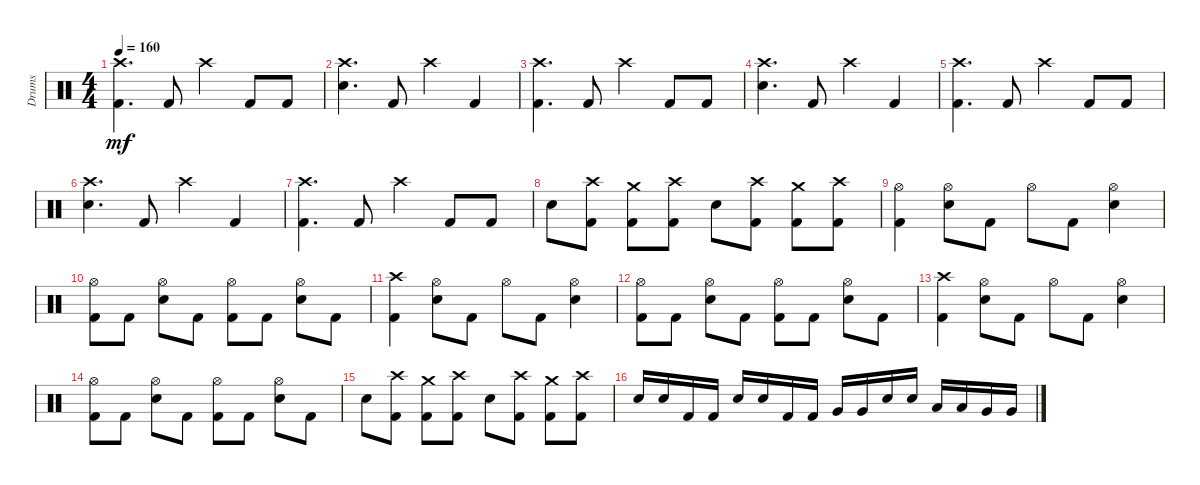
\track ("Drums" "Drums") {instrument percussion}
\staff {score}
\articulation defaults
\ts (4 4)
\tempo 160
\clef neutral
\ks c
("Crash high (hit)" "Kick (hit) 2").4{d dy mf} "Kick (hit) 2".8 "Crash high (hit)".4 "Kick (hit) 2".8 "Kick (hit) 2".8 |
("Crash high (hit)" "Electric Snare (hit)").4{d} "Kick (hit) 2".8 "Crash high (hit)".4 "Kick (hit) 2".4 |
("Crash high (hit)" "Kick (hit) 2").4{d} "Kick (hit) 2".8 "Crash high (hit)".4 "Kick (hit) 2".8 "Kick (hit) 2".8 |
("Crash high (hit)" "Electric Snare (hit)").4{d} "Kick (hit) 2".8 "Crash high (hit)".4 "Kick (hit) 2".4 |
("Crash high (hit)" "Kick (hit) 2").4{d} "Kick (hit) 2".8 "Crash high (hit)".4 "Kick (hit) 2".8 "Kick (hit) 2".8 |
("Crash high (hit)" "Electric Snare (hit)").4{d} "Kick (hit) 2".8 "Crash high (hit)".4 "Kick (hit) 2".4 |
("Crash high (hit)" "Kick (hit) 2").4{d} "Kick (hit) 2".8 "Crash high (hit)".4 "Kick (hit) 2".8 "Kick (hit) 2".8 |
"Electric Snare (hit)".8 ("Crash high (hit)" "Kick (hit) 2").8 ("Crash medium (hit)" "Kick (hit) 2").8 ("Crash high (hit)" "Kick (hit) 2").8 "Electric Snare (hit)".8 ("Crash high (hit)" "Kick (hit) 2").8 ("Crash medium (hit)" "Kick (hit) 2").8 ("Crash high (hit)" "Kick (hit) 2").8 |
("Hi-Hat (open)" "Kick (hit) 2").4 ("Hi-Hat (open)" "Electric Snare (hit)").8 "Kick (hit) 2".8 "Hi-Hat (open)".8 "Kick (hit) 2".8 ("Hi-Hat (open)" "Electric Snare (hit)").4 |
("Hi-Hat (open)" "Kick (hit) 2").8 "Kick (hit) 2".8 ("Hi-Hat (open)" "Electric Snare (hit)").8 "Kick (hit) 2".8 ("Hi-Hat (open)" "Kick (hit) 2").8 "Kick (hit) 2".8 ("Hi-Hat (open)" "Electric Snare (hit)").8 "Kick (hit) 2".8 |
("Crash high (hit)" "Kick (hit) 2").4 ("Hi-Hat (open)" "Electric Snare (hit)").8 "Kick (hit) 2".8 "Hi-Hat (open)".8 "Kick (hit) 2".8 ("Hi-Hat (open)" "Electric Snare (hit)").4 |
("Hi-Hat (open)" "Kick (hit) 2").8 "Kick (hit) 2".8 ("Hi-Hat (open)" "Electric Snare (hit)").8 "Kick (hit) 2".8 ("Hi-Hat (open)" "Kick (hit) 2").8 "Kick (hit) 2".8 ("Hi-Hat (open)" "Electric Snare (hit)").8 "Kick (hit) 2".8 |
("Crash high (hit)" "Kick (hit) 2").4 ("Hi-Hat (open)" "Electric Snare (hit)").8 "Kick (hit) 2".8 "Hi-Hat (open)".8 "Kick (hit) 2".8 ("Hi-Hat (open)" "Electric Snare (hit)").4 |
("Hi-Hat (open)" "Kick (hit) 2").8 "Kick (hit) 2".8 ("Hi-Hat (open)" "Electric Snare (hit)").8 "Kick (hit) 2".8 ("Hi-Hat (open)" "Kick (hit) 2").8 "Kick (hit) 2".8 ("Hi-Hat (open)" "Electric Snare (hit)").8 "Kick (hit) 2".8 |
"Electric Snare (hit)".8 ("Crash high (hit)" "Kick (hit) 2").8 ("Crash medium (hit)" "Kick (hit) 2").8 ("Crash high (hit)" "Kick (hit) 2").8 "Electric Snare (hit)".8 ("Crash high (hit)" "Kick (hit) 2").8 ("Crash medium (hit)" "Kick (hit) 2").8 ("Crash high (hit)" "Kick (hit) 2").8 |
"Electric Snare (hit)".16 "Electric Snare (hit)".16 "Kick (hit) 2".16 "Kick (hit) 2".16 "Electric Snare (hit)".16 "Electric Snare (hit)".16 "Kick (hit) 2".16 "Kick (hit) 2".16 "Very Low Tom (hit)".16 "Very Low Tom (hit)".16 "Electric Snare (hit)".16 "Electric Snare (hit)".16 "Low Tom (hit)".16 "Low Tom (hit)".16 "Very Low Tom (hit)".16 "Very Low Tom (hit)".16
